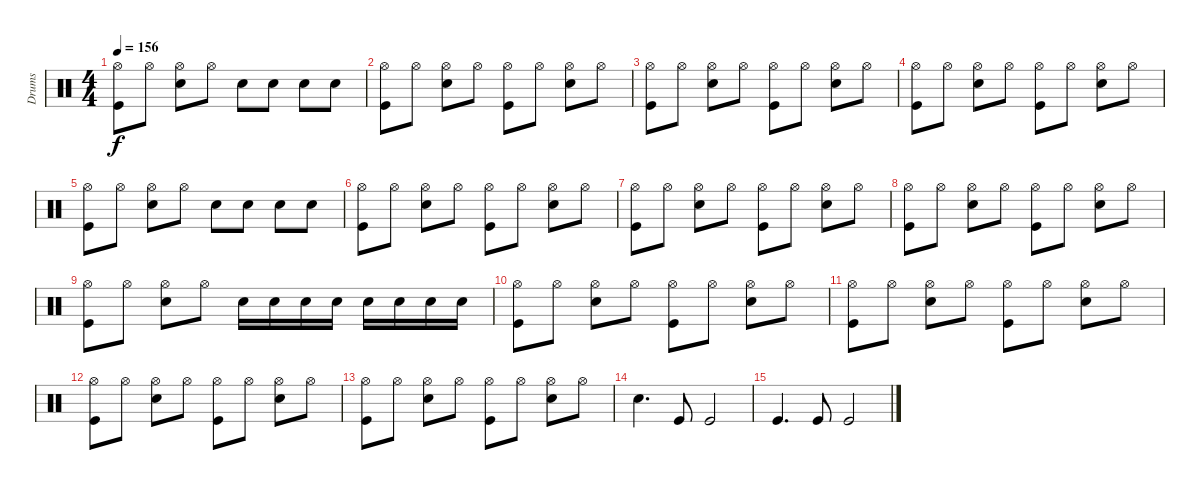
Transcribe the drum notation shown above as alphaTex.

\track ("Drums" "Drums") {instrument percussion}
\staff {score}
\articulation defaults
\ts (4 4)
\tempo 156
\clef neutral
\ks c
("Hi-Hat (open)" "Kick (hit)").8{dy f} "Hi-Hat (open)".8 ("Hi-Hat (open)" "Electric Snare (hit)").8 "Hi-Hat (open)".8 "Electric Snare (hit)".8 "Electric Snare (hit)".8 "Electric Snare (hit)".8 "Electric Snare (hit)".8 |
("Hi-Hat (open)" "Kick (hit)").8 "Hi-Hat (open)".8 ("Hi-Hat (open)" "Electric Snare (hit)").8 "Hi-Hat (open)".8 ("Hi-Hat (open)" "Kick (hit)").8 "Hi-Hat (open)".8 ("Hi-Hat (open)" "Electric Snare (hit)").8 "Hi-Hat (open)".8 |
("Hi-Hat (open)" "Kick (hit)").8 "Hi-Hat (open)".8 ("Hi-Hat (open)" "Electric Snare (hit)").8 "Hi-Hat (open)".8 ("Hi-Hat (open)" "Kick (hit)").8 "Hi-Hat (open)".8 ("Hi-Hat (open)" "Electric Snare (hit)").8 "Hi-Hat (open)".8 |
("Hi-Hat (open)" "Kick (hit)").8 "Hi-Hat (open)".8 ("Hi-Hat (open)" "Electric Snare (hit)").8 "Hi-Hat (open)".8 ("Hi-Hat (open)" "Kick (hit)").8 "Hi-Hat (open)".8 ("Hi-Hat (open)" "Electric Snare (hit)").8 "Hi-Hat (open)".8 |
("Hi-Hat (open)" "Kick (hit)").8 "Hi-Hat (open)".8 ("Hi-Hat (open)" "Electric Snare (hit)").8 "Hi-Hat (open)".8 "Electric Snare (hit)".8 "Electric Snare (hit)".8 "Electric Snare (hit)".8 "Electric Snare (hit)".8 |
("Hi-Hat (open)" "Kick (hit)").8 "Hi-Hat (open)".8 ("Hi-Hat (open)" "Electric Snare (hit)").8 "Hi-Hat (open)".8 ("Hi-Hat (open)" "Kick (hit)").8 "Hi-Hat (open)".8 ("Hi-Hat (open)" "Electric Snare (hit)").8 "Hi-Hat (open)".8 |
("Hi-Hat (open)" "Kick (hit)").8 "Hi-Hat (open)".8 ("Hi-Hat (open)" "Electric Snare (hit)").8 "Hi-Hat (open)".8 ("Hi-Hat (open)" "Kick (hit)").8 "Hi-Hat (open)".8 ("Hi-Hat (open)" "Electric Snare (hit)").8 "Hi-Hat (open)".8 |
("Hi-Hat (open)" "Kick (hit)").8 "Hi-Hat (open)".8 ("Hi-Hat (open)" "Electric Snare (hit)").8 "Hi-Hat (open)".8 ("Hi-Hat (open)" "Kick (hit)").8 "Hi-Hat (open)".8 ("Hi-Hat (open)" "Electric Snare (hit)").8 "Hi-Hat (open)".8 |
("Hi-Hat (open)" "Kick (hit)").8 "Hi-Hat (open)".8 ("Hi-Hat (open)" "Electric Snare (hit)").8 "Hi-Hat (open)".8 "Electric Snare (hit)".16 "Electric Snare (hit)".16 "Electric Snare (hit)".16 "Electric Snare (hit)".16 "Electric Snare (hit)".16 "Electric Snare (hit)".16 "Electric Snare (hit)".16 "Electric Snare (hit)".16 |
("Hi-Hat (open)" "Kick (hit)").8 "Hi-Hat (open)".8 ("Hi-Hat (open)" "Electric Snare (hit)").8 "Hi-Hat (open)".8 ("Hi-Hat (open)" "Kick (hit)").8 "Hi-Hat (open)".8 ("Hi-Hat (open)" "Electric Snare (hit)").8 "Hi-Hat (open)".8 |
("Hi-Hat (open)" "Kick (hit)").8 "Hi-Hat (open)".8 ("Hi-Hat (open)" "Electric Snare (hit)").8 "Hi-Hat (open)".8 ("Hi-Hat (open)" "Kick (hit)").8 "Hi-Hat (open)".8 ("Hi-Hat (open)" "Electric Snare (hit)").8 "Hi-Hat (open)".8 |
("Hi-Hat (open)" "Kick (hit)").8 "Hi-Hat (open)".8 ("Hi-Hat (open)" "Electric Snare (hit)").8 "Hi-Hat (open)".8 ("Hi-Hat (open)" "Kick (hit)").8 "Hi-Hat (open)".8 ("Hi-Hat (open)" "Electric Snare (hit)").8 "Hi-Hat (open)".8 |
("Hi-Hat (open)" "Kick (hit)").8 "Hi-Hat (open)".8 ("Hi-Hat (open)" "Electric Snare (hit)").8 "Hi-Hat (open)".8 ("Hi-Hat (open)" "Kick (hit)").8 "Hi-Hat (open)".8 ("Hi-Hat (open)" "Electric Snare (hit)").8 "Hi-Hat (open)".8 |
"Electric Snare (hit)".4{d} "Kick (hit)".8 "Kick (hit)".2 |
"Kick (hit)".4{d} "Kick (hit)".8 "Kick (hit)".2
